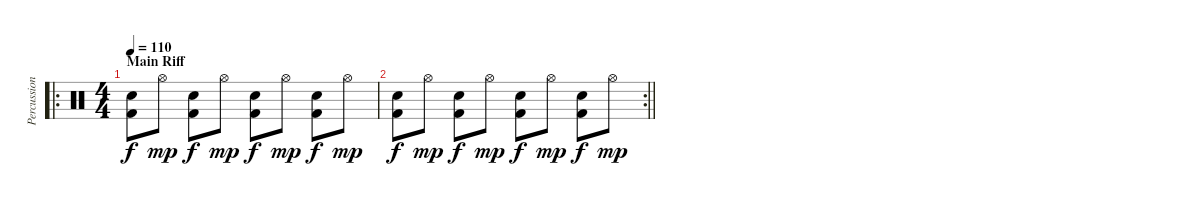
\track ("Percussion" "Percussion") {instrument percussion}
\staff {score}
\articulation defaults
\ro
\ts (4 4)
\section ("" "Main Riff")
\tempo 110
\clef neutral
\ks c
("Snare (hit) 2" "Kick (hit) 2").8{dy f} "Hi-Hat (open)".8{dy mp} ("Snare (hit) 2" "Kick (hit) 2").8{dy f} "Hi-Hat (open)".8{dy mp} ("Snare (hit) 2" "Kick (hit) 2").8{dy f} "Hi-Hat (open)".8{dy mp} ("Snare (hit) 2" "Kick (hit) 2").8{dy f} "Hi-Hat (open)".8{dy mp} |
\rc 2
\barLineRight lightlight
("Snare (hit) 2" "Kick (hit) 2").8{dy f} "Hi-Hat (open)".8{dy mp} ("Snare (hit) 2" "Kick (hit) 2").8{dy f} "Hi-Hat (open)".8{dy mp} ("Snare (hit) 2" "Kick (hit) 2").8{dy f} "Hi-Hat (open)".8{dy mp} ("Snare (hit) 2" "Kick (hit) 2").8{dy f} "Hi-Hat (open)".8{dy mp}
